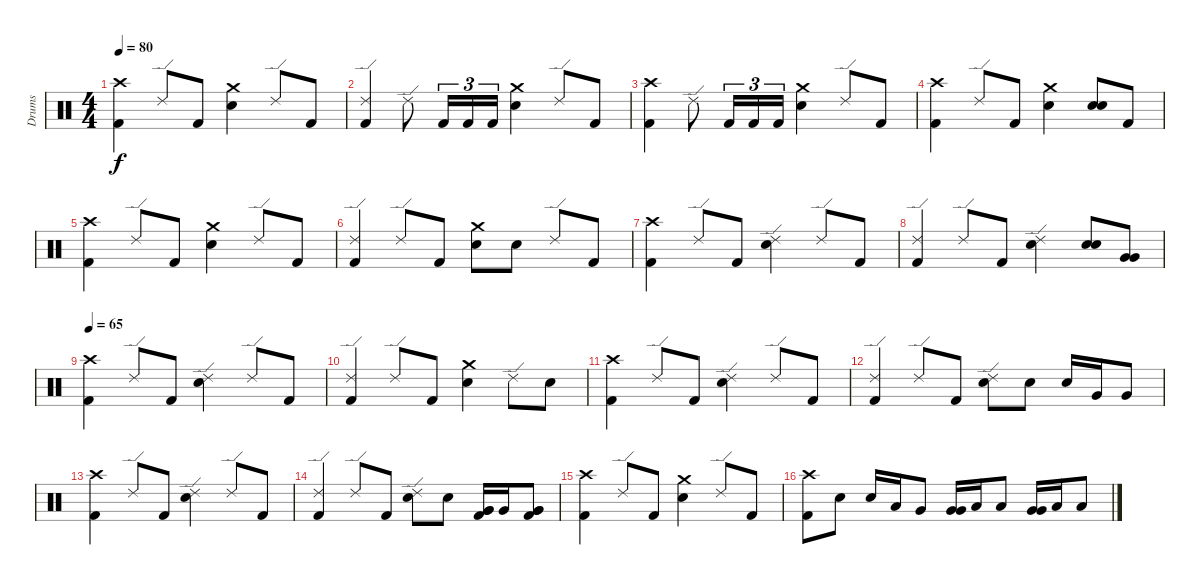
\track ("Drums" "Drums") {instrument percussion}
\staff {score}
\articulation defaults
\ts (4 4)
\tempo 80
\clef neutral
\ks c
("Crash high (hit)" "Kick (hit) 2").4{dy f} "Ride (edge) 2".8 "Kick (hit) 2".8 ("Crash medium (hit)" "Electric Snare (hit)").4 "Ride (edge) 2".8 "Kick (hit) 2".8 |
("Ride (edge) 2" "Kick (hit) 2").4 "Ride (edge) 2".8 "Kick (hit) 2".16{tu (3 2)} "Kick (hit) 2".16{tu (3 2)} "Kick (hit) 2".16{tu (3 2)} ("Crash medium (hit)" "Electric Snare (hit)").4 "Ride (edge) 2".8 "Kick (hit) 2".8 |
("Crash high (hit)" "Kick (hit) 2").4 "Ride (edge) 2".8 "Kick (hit) 2".16{tu (3 2)} "Kick (hit) 2".16{tu (3 2)} "Kick (hit) 2".16{tu (3 2)} ("Crash medium (hit)" "Electric Snare (hit)").4 "Ride (edge) 2".8 "Kick (hit) 2".8 |
("Crash high (hit)" "Kick (hit) 2").4 "Ride (edge) 2".8 "Kick (hit) 2".8 ("Crash medium (hit)" "Electric Snare (hit)").4 ("Electric Snare (hit)" "Electric Snare (hit)").8{bu 60} "Kick (hit) 2".8 |
("Crash high (hit)" "Kick (hit) 2").4 "Ride (edge) 2".8 "Kick (hit) 2".8 ("Crash medium (hit)" "Electric Snare (hit)").4 "Ride (edge) 2".8 "Kick (hit) 2".8 |
("Ride (edge) 2" "Kick (hit) 2").4 "Ride (edge) 2".8 "Kick (hit) 2".8 ("Crash medium (hit)" "Electric Snare (hit)").8 "Electric Snare (hit)".8 "Ride (edge) 2".8 "Kick (hit) 2".8 |
("Crash high (hit)" "Kick (hit) 2").4 "Ride (edge) 2".8 "Kick (hit) 2".8 ("Ride (edge) 2" "Electric Snare (hit)").4 "Ride (edge) 2".8 "Kick (hit) 2".8 |
("Ride (edge) 2" "Kick (hit) 2").4 "Ride (edge) 2".8 "Kick (hit) 2".8 ("Ride (edge) 2" "Electric Snare (hit)").4 ("Electric Snare (hit)" "Electric Snare (hit)").8{bu 60} ("Very Low Tom (hit)" "Very Low Tom (hit)").8{bu 60} |
\tempo 65
("Crash high (hit)" "Kick (hit) 2").4 "Ride (edge) 2".8 "Kick (hit) 2".8 ("Ride (edge) 2" "Electric Snare (hit)").4 "Ride (edge) 2".8 "Kick (hit) 2".8 |
("Ride (edge) 2" "Kick (hit) 2").4 "Ride (edge) 2".8 "Kick (hit) 2".8 ("Crash medium (hit)" "Electric Snare (hit)").4 "Ride (edge) 2".8 "Electric Snare (hit)".8 |
("Crash high (hit)" "Kick (hit) 2").4 "Ride (edge) 2".8 "Kick (hit) 2".8 ("Ride (edge) 2" "Electric Snare (hit)").4 "Ride (edge) 2".8 "Kick (hit) 2".8 |
("Ride (edge) 2" "Kick (hit) 2").4 "Ride (edge) 2".8 "Kick (hit) 2".8 ("Ride (edge) 2" "Electric Snare (hit)").8 "Electric Snare (hit)".8 "Electric Snare (hit)".16 "Very Low Tom (hit)".16 "Very Low Tom (hit)".8 |
("Crash high (hit)" "Kick (hit) 2").4 "Ride (edge) 2".8 "Kick (hit) 2".8 ("Ride (edge) 2" "Electric Snare (hit)").4 "Ride (edge) 2".8 "Kick (hit) 2".8 |
("Ride (edge) 2" "Kick (hit) 2").4 "Ride (edge) 2".8 "Kick (hit) 2".8 ("Ride (edge) 2" "Electric Snare (hit)").8 "Electric Snare (hit)".8 ("Very Low Tom (hit)" "Very Low Tom (hit)" "Kick (hit) 2").16{bu 60} "Very Low Tom (hit)".16 ("Very Low Tom (hit)" "Very Low Tom (hit)" "Kick (hit) 2").8{bu 60} |
("Crash high (hit)" "Kick (hit) 2").4 "Ride (edge) 2".8 "Kick (hit) 2".8 ("Crash medium (hit)" "Electric Snare (hit)").4 "Ride (edge) 2".8 "Kick (hit) 2".8 |
("Crash high (hit)" "Kick (hit) 2").8 "Electric Snare (hit)".8 "Electric Snare (hit)".16 "Low Tom (hit)".16 "Very Low Tom (hit)".8 ("Very Low Tom (hit)" "Very Low Tom (hit)").16{bu 60} "Low Floor Tom (hit)".16 "Low Floor Tom (hit)".8 ("Very Low Tom (hit)" "Very Low Tom (hit)").16{bu 60} "Low Floor Tom (hit)".16 "Low Floor Tom (hit)".8
